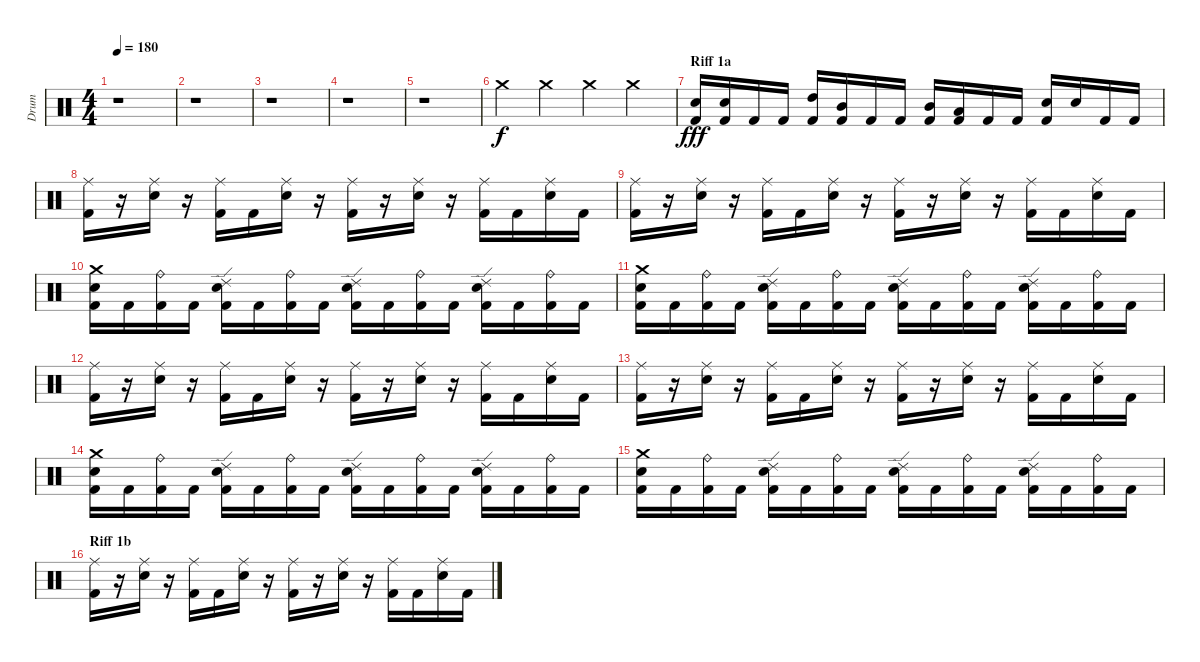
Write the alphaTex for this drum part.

\track ("Drum" "Drum") {instrument percussion}
\staff {score}
\articulation defaults
\ts (4 4)
\tempo 180
\clef neutral
\ks c
r.1{dy f} |
r.1 |
r.1 |
r.1 |
r.1 |
"Crash medium (hit)".4 "Crash medium (hit)".4 "Crash medium (hit)".4 "Crash medium (hit)".4 |
\section ("" "Riff 1a")
("Kick (hit) 2" "Electric Snare (hit)").16{dy fff} ("Kick (hit) 2" "Electric Snare (hit)").16 "Kick (hit) 2".16 "Kick (hit) 2".16 ("Kick (hit) 2" "High Tom (hit)").16 ("Kick (hit) 2" "Mid Tom (hit)").16 "Kick (hit) 2".16 "Kick (hit) 2".16 ("Kick (hit) 2" "Mid Tom (hit)").16 ("Kick (hit) 2" "Low Tom (hit)").16 "Kick (hit) 2".16 "Kick (hit) 2".16 ("Kick (hit) 2" "Electric Snare (hit)").16 "Electric Snare (hit)".16 "Kick (hit) 2".16 "Kick (hit) 2".16 |
("Kick (hit) 2" "Ride (middle)").16 r.16 ("Electric Snare (hit)" "Ride (middle)").16 r.16 ("Kick (hit) 2" "Ride (middle)").16 "Kick (hit) 2".16 ("Electric Snare (hit)" "Ride (middle)").16 r.16 ("Kick (hit) 2" "Ride (middle)").16 r.16 ("Electric Snare (hit)" "Ride (middle)").16 r.16 ("Kick (hit) 2" "Ride (middle)").16 "Kick (hit) 2".16 ("Electric Snare (hit)" "Ride (middle)").16 "Kick (hit) 2".16 |
("Kick (hit) 2" "Ride (middle)").16 r.16 ("Electric Snare (hit)" "Ride (middle)").16 r.16 ("Kick (hit) 2" "Ride (middle)").16 "Kick (hit) 2".16 ("Electric Snare (hit)" "Ride (middle)").16 r.16 ("Kick (hit) 2" "Ride (middle)").16 r.16 ("Electric Snare (hit)" "Ride (middle)").16 r.16 ("Kick (hit) 2" "Ride (middle)").16 "Kick (hit) 2".16 ("Electric Snare (hit)" "Ride (middle)").16 "Kick (hit) 2".16 |
("Kick (hit) 2" "Electric Snare (hit)" "Crash medium (hit)").16 "Kick (hit) 2".16 ("Kick (hit) 2" "Ride (bell)").16 "Kick (hit) 2".16 ("Kick (hit) 2" "Electric Snare (hit)" "Ride (edge) 2").16 "Kick (hit) 2".16 ("Kick (hit) 2" "Ride (bell)").16 "Kick (hit) 2".16 ("Kick (hit) 2" "Electric Snare (hit)" "Ride (edge) 2").16 "Kick (hit) 2".16 ("Kick (hit) 2" "Ride (bell)").16 "Kick (hit) 2".16 ("Electric Snare (hit)" "Kick (hit) 2" "Ride (edge) 2").16 "Kick (hit) 2".16 ("Kick (hit) 2" "Ride (bell)").16 "Kick (hit) 2".16 |
("Electric Snare (hit)" "Kick (hit) 2" "Crash medium (hit)").16 "Kick (hit) 2".16 ("Kick (hit) 2" "Ride (bell)").16 "Kick (hit) 2".16 ("Kick (hit) 2" "Electric Snare (hit)" "Ride (edge) 2").16 "Kick (hit) 2".16 ("Kick (hit) 2" "Ride (bell)").16 "Kick (hit) 2".16 ("Kick (hit) 2" "Electric Snare (hit)" "Ride (edge) 2").16 "Kick (hit) 2".16 ("Kick (hit) 2" "Ride (bell)").16 "Kick (hit) 2".16 ("Electric Snare (hit)" "Kick (hit) 2" "Ride (edge) 2").16 "Kick (hit) 2".16 ("Kick (hit) 2" "Ride (bell)").16 "Kick (hit) 2".16 |
("Kick (hit) 2" "Ride (middle)").16 r.16 ("Electric Snare (hit)" "Ride (middle)").16 r.16 ("Kick (hit) 2" "Ride (middle)").16 "Kick (hit) 2".16 ("Electric Snare (hit)" "Ride (middle)").16 r.16 ("Kick (hit) 2" "Ride (middle)").16 r.16 ("Electric Snare (hit)" "Ride (middle)").16 r.16 ("Kick (hit) 2" "Ride (middle)").16 "Kick (hit) 2".16 ("Electric Snare (hit)" "Ride (middle)").16 "Kick (hit) 2".16 |
("Kick (hit) 2" "Ride (middle)").16 r.16 ("Electric Snare (hit)" "Ride (middle)").16 r.16 ("Kick (hit) 2" "Ride (middle)").16 "Kick (hit) 2".16 ("Electric Snare (hit)" "Ride (middle)").16 r.16 ("Kick (hit) 2" "Ride (middle)").16 r.16 ("Electric Snare (hit)" "Ride (middle)").16 r.16 ("Kick (hit) 2" "Ride (middle)").16 "Kick (hit) 2".16 ("Electric Snare (hit)" "Ride (middle)").16 "Kick (hit) 2".16 |
("Electric Snare (hit)" "Kick (hit) 2" "Crash medium (hit)").16 "Kick (hit) 2".16 ("Kick (hit) 2" "Ride (bell)").16 "Kick (hit) 2".16 ("Electric Snare (hit)" "Kick (hit) 2" "Ride (edge) 2").16 "Kick (hit) 2".16 ("Kick (hit) 2" "Ride (bell)").16 "Kick (hit) 2".16 ("Kick (hit) 2" "Electric Snare (hit)" "Ride (edge) 2").16 "Kick (hit) 2".16 ("Kick (hit) 2" "Ride (bell)").16 "Kick (hit) 2".16 ("Kick (hit) 2" "Electric Snare (hit)" "Ride (edge) 2").16 "Kick (hit) 2".16 ("Kick (hit) 2" "Ride (bell)").16 "Kick (hit) 2".16 |
("Kick (hit) 2" "Electric Snare (hit)" "Crash medium (hit)").16 "Kick (hit) 2".16 ("Kick (hit) 2" "Ride (bell)").16 "Kick (hit) 2".16 ("Kick (hit) 2" "Electric Snare (hit)" "Ride (edge) 2").16 "Kick (hit) 2".16 ("Kick (hit) 2" "Ride (bell)").16 "Kick (hit) 2".16 ("Electric Snare (hit)" "Kick (hit) 2" "Ride (edge) 2").16 "Kick (hit) 2".16 ("Kick (hit) 2" "Ride (bell)").16 "Kick (hit) 2".16 ("Kick (hit) 2" "Electric Snare (hit)" "Ride (edge) 2").16 "Kick (hit) 2".16 ("Kick (hit) 2" "Ride (bell)").16 "Kick (hit) 2".16 |
\section ("" "Riff 1b")
("Kick (hit) 2" "Ride (middle)").16 r.16 ("Electric Snare (hit)" "Ride (middle)").16 r.16 ("Kick (hit) 2" "Ride (middle)").16 "Kick (hit) 2".16 ("Electric Snare (hit)" "Ride (middle)").16 r.16 ("Kick (hit) 2" "Ride (middle)").16 r.16 ("Electric Snare (hit)" "Ride (middle)").16 r.16 ("Kick (hit) 2" "Ride (middle)").16 "Kick (hit) 2".16 ("Electric Snare (hit)" "Ride (middle)").16 "Kick (hit) 2".16
